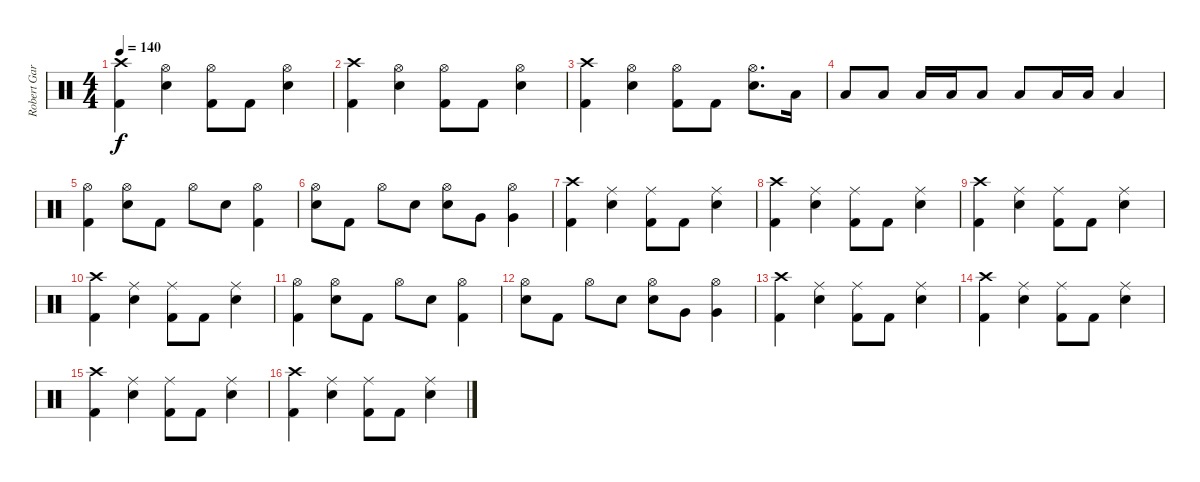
\track ("Robert Garven" "Robert Gar") {instrument percussion}
\staff {score}
\articulation defaults
\ts (4 4)
\tempo 140
\clef neutral
\ks c
("Crash high (hit)" "Kick (hit) 2").4{dy f} ("Hi-Hat (open)" "Electric Snare (hit)").4 ("Hi-Hat (open)" "Kick (hit) 2").8 "Kick (hit) 2".8 ("Hi-Hat (open)" "Electric Snare (hit)").4 |
("Crash high (hit)" "Kick (hit) 2").4 ("Hi-Hat (open)" "Electric Snare (hit)").4 ("Hi-Hat (open)" "Kick (hit) 2").8 "Kick (hit) 2".8 ("Hi-Hat (open)" "Electric Snare (hit)").4 |
("Crash high (hit)" "Kick (hit) 2").4 ("Hi-Hat (open)" "Electric Snare (hit)").4 ("Hi-Hat (open)" "Kick (hit) 2").8 "Kick (hit) 2".8 ("Hi-Hat (open)" "Electric Snare (hit)").8{d} "Low Tom (hit)".16 |
"Low Tom (hit)".8 "Low Floor Tom (hit)".8 "Low Floor Tom (hit)".16 "Low Floor Tom (hit)".16 "Low Tom (hit)".8 "Low Tom (hit)".8 "Low Floor Tom (hit)".16 "Low Tom (hit)".16 "Low Tom (hit)".4 |
("Hi-Hat (open)" "Kick (hit) 2").4 ("Hi-Hat (open)" "Electric Snare (hit)").8 "Kick (hit) 2".8 "Hi-Hat (open)".8 "Electric Snare (hit)".8 ("Hi-Hat (open)" "Kick (hit) 2").4 |
("Hi-Hat (open)" "Electric Snare (hit)").8 "Kick (hit) 2".8 "Hi-Hat (open)".8 "Electric Snare (hit)".8 ("Hi-Hat (open)" "Electric Snare (hit)").8 "Very Low Tom (hit)".8 ("Hi-Hat (open)" "Very Low Tom (hit)").4 |
("Crash high (hit)" "Kick (hit) 2").4 ("Ride (middle)" "Electric Snare (hit)").4 ("Ride (middle)" "Kick (hit) 2").8 "Kick (hit) 2".8 ("Ride (middle)" "Electric Snare (hit)").4 |
("Crash high (hit)" "Kick (hit) 2").4 ("Ride (middle)" "Electric Snare (hit)").4 ("Ride (middle)" "Kick (hit) 2").8 "Kick (hit) 2".8 ("Ride (middle)" "Electric Snare (hit)").4 |
("Crash high (hit)" "Kick (hit) 2").4 ("Ride (middle)" "Electric Snare (hit)").4 ("Ride (middle)" "Kick (hit) 2").8 "Kick (hit) 2".8 ("Ride (middle)" "Electric Snare (hit)").4 |
("Crash high (hit)" "Kick (hit) 2").4 ("Ride (middle)" "Electric Snare (hit)").4 ("Ride (middle)" "Kick (hit) 2").8 "Kick (hit) 2".8 ("Ride (middle)" "Electric Snare (hit)").4 |
("Hi-Hat (open)" "Kick (hit) 2").4 ("Hi-Hat (open)" "Electric Snare (hit)").8 "Kick (hit) 2".8 "Hi-Hat (open)".8 "Electric Snare (hit)".8 ("Hi-Hat (open)" "Kick (hit) 2").4 |
("Hi-Hat (open)" "Electric Snare (hit)").8 "Kick (hit) 2".8 "Hi-Hat (open)".8 "Electric Snare (hit)".8 ("Hi-Hat (open)" "Electric Snare (hit)").8 "Very Low Tom (hit)".8 ("Hi-Hat (open)" "Very Low Tom (hit)").4 |
("Crash high (hit)" "Kick (hit) 2").4 ("Ride (middle)" "Electric Snare (hit)").4 ("Ride (middle)" "Kick (hit) 2").8 "Kick (hit) 2".8 ("Ride (middle)" "Electric Snare (hit)").4 |
("Crash high (hit)" "Kick (hit) 2").4 ("Ride (middle)" "Electric Snare (hit)").4 ("Ride (middle)" "Kick (hit) 2").8 "Kick (hit) 2".8 ("Ride (middle)" "Electric Snare (hit)").4 |
("Crash high (hit)" "Kick (hit) 2").4 ("Ride (middle)" "Electric Snare (hit)").4 ("Ride (middle)" "Kick (hit) 2").8 "Kick (hit) 2".8 ("Ride (middle)" "Electric Snare (hit)").4 |
("Crash high (hit)" "Kick (hit) 2").4 ("Ride (middle)" "Electric Snare (hit)").4 ("Ride (middle)" "Kick (hit) 2").8 "Kick (hit) 2".8 ("Ride (middle)" "Electric Snare (hit)").4
